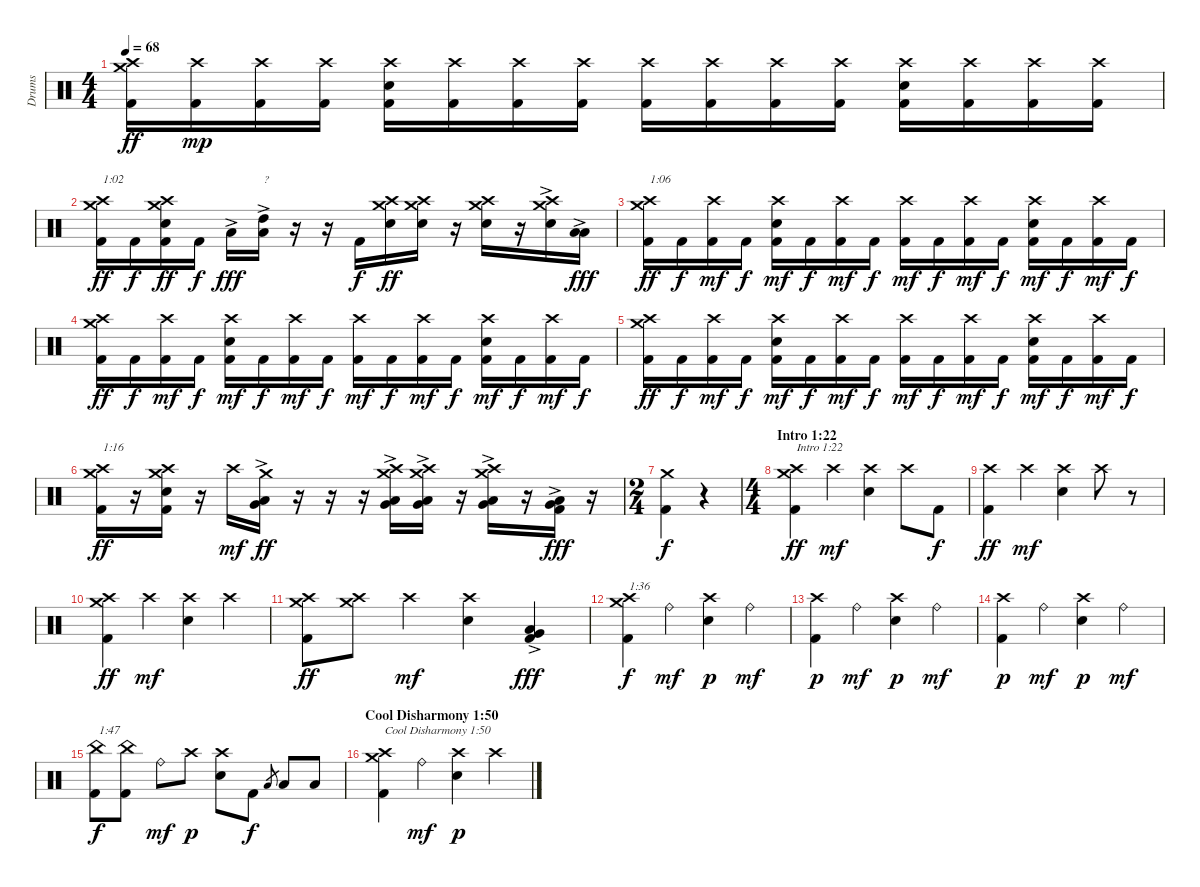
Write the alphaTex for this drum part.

\track ("Drums" "Drums") {instrument percussion}
\staff {score}
\articulation defaults
\ts (4 4)
\tempo 68
\clef neutral
\ks c
("Kick (hit) 2" "Crash high (hit)" "Crash medium (hit)").16{dy ff} ("Kick (hit) 2" "Crash high (hit)").16{dy mp} ("Kick (hit) 2" "Crash high (hit)").16 ("Kick (hit) 2" "Crash high (hit)").16 ("Kick (hit) 2" "Electric Snare (hit)" "Crash high (hit)").16 ("Kick (hit) 2" "Crash high (hit)").16 ("Kick (hit) 2" "Crash high (hit)").16 ("Kick (hit) 2" "Crash high (hit)").16 ("Kick (hit) 2" "Crash high (hit)").16 ("Kick (hit) 2" "Crash high (hit)").16 ("Kick (hit) 2" "Crash high (hit)").16 ("Kick (hit) 2" "Crash high (hit)").16 ("Kick (hit) 2" "Electric Snare (hit)" "Crash high (hit)").16 ("Kick (hit) 2" "Crash high (hit)").16 ("Kick (hit) 2" "Crash high (hit)").16 ("Kick (hit) 2" "Crash high (hit)").16 |
("Kick (hit) 2" "Crash high (hit)" "Crash medium (hit)").16{txt "1:02" dy ff} "Kick (hit) 2".16{dy f} ("Kick (hit) 2" "Electric Snare (hit)" "Crash high (hit)" "Crash medium (hit)").16{dy ff} "Kick (hit) 2".16{dy f} "Low Tom (hit)"{ac}.16{dy fff} ("Low Tom (hit)"{ac} "High Tom (hit)"{ac}).16{txt "?"} r.16 r.16 "Kick (hit) 2".16{dy f} ("Electric Snare (hit)" "Crash high (hit)" "Crash medium (hit)").16{dy ff} ("Electric Snare (hit)" "Crash high (hit)" "Crash medium (hit)").16 r.16 ("Electric Snare (hit)" "Crash high (hit)" "Crash medium (hit)").16 r.16 ("Electric Snare (hit)"{ac} "Crash high (hit)" "Crash medium (hit)").16 ("Low Tom (hit)"{ac} "Low Tom (hit)"{ac}).16{dy fff} |
("Kick (hit) 2" "Crash high (hit)" "Crash medium (hit)").16{txt "1:06" dy ff} "Kick (hit) 2".16{dy f} ("Kick (hit) 2" "Crash high (hit)").16{dy mf} "Kick (hit) 2".16{dy f} ("Kick (hit) 2" "Electric Snare (hit)" "Crash high (hit)").16{dy mf} "Kick (hit) 2".16{dy f} ("Kick (hit) 2" "Crash high (hit)").16{dy mf} "Kick (hit) 2".16{dy f} ("Kick (hit) 2" "Crash high (hit)").16{dy mf} "Kick (hit) 2".16{dy f} ("Kick (hit) 2" "Crash high (hit)").16{dy mf} "Kick (hit) 2".16{dy f} ("Kick (hit) 2" "Electric Snare (hit)" "Crash high (hit)").16{dy mf} "Kick (hit) 2".16{dy f} ("Kick (hit) 2" "Crash high (hit)").16{dy mf} "Kick (hit) 2".16{dy f} |
("Kick (hit) 2" "Crash high (hit)" "Crash medium (hit)").16{dy ff} "Kick (hit) 2".16{dy f} ("Kick (hit) 2" "Crash high (hit)").16{dy mf} "Kick (hit) 2".16{dy f} ("Kick (hit) 2" "Electric Snare (hit)" "Crash high (hit)").16{dy mf} "Kick (hit) 2".16{dy f} ("Kick (hit) 2" "Crash high (hit)").16{dy mf} "Kick (hit) 2".16{dy f} ("Kick (hit) 2" "Crash high (hit)").16{dy mf} "Kick (hit) 2".16{dy f} ("Kick (hit) 2" "Crash high (hit)").16{dy mf} "Kick (hit) 2".16{dy f} ("Kick (hit) 2" "Electric Snare (hit)" "Crash high (hit)").16{dy mf} "Kick (hit) 2".16{dy f} ("Kick (hit) 2" "Crash high (hit)").16{dy mf} "Kick (hit) 2".16{dy f} |
("Kick (hit) 2" "Crash high (hit)" "Crash medium (hit)").16{dy ff} "Kick (hit) 2".16{dy f} ("Kick (hit) 2" "Crash high (hit)").16{dy mf} "Kick (hit) 2".16{dy f} ("Kick (hit) 2" "Electric Snare (hit)" "Crash high (hit)").16{dy mf} "Kick (hit) 2".16{dy f} ("Kick (hit) 2" "Crash high (hit)").16{dy mf} "Kick (hit) 2".16{dy f} ("Kick (hit) 2" "Crash high (hit)").16{dy mf} "Kick (hit) 2".16{dy f} ("Kick (hit) 2" "Crash high (hit)").16{dy mf} "Kick (hit) 2".16{dy f} ("Kick (hit) 2" "Electric Snare (hit)" "Crash high (hit)").16{dy mf} "Kick (hit) 2".16{dy f} ("Kick (hit) 2" "Crash high (hit)").16{dy mf} "Kick (hit) 2".16{dy f} |
("Kick (hit) 2" "Crash high (hit)" "Crash medium (hit)").16{txt "1:16" dy ff} r.16 ("Kick (hit) 2" "Electric Snare (hit)" "Crash high (hit)" "Crash medium (hit)").16 r.16 "Crash high (hit)".16{dy mf} ("Low Tom (hit)"{ac} "Very Low Tom (hit)"{ac} "Crash medium (hit)").16{dy ff} r.16 r.16 r.16 ("Low Tom (hit)"{ac} "Very Low Tom (hit)"{ac} "Crash high (hit)" "Crash medium (hit)").16 ("Low Tom (hit)"{ac} "Very Low Tom (hit)"{ac} "Crash high (hit)" "Crash medium (hit)").16 r.16 ("Low Tom (hit)"{ac} "Very Low Tom (hit)"{ac} "Crash high (hit)" "Crash medium (hit)").16 r.16 ("Kick (hit) 2"{ac} "Low Tom (hit)"{ac} "Very Low Tom (hit)"{ac}).16{dy fff} r.16 |
\ts (2 4)
("Kick (hit) 2" "Crash medium (hit)").4{dy f} r.4 |
\ts (4 4)
\section ("" "Intro 1:22")
("Kick (hit) 2" "Crash high (hit)" "Crash medium (hit)").4{txt "Intro 1:22" dy ff} "Crash high (hit)".4{dy mf} ("Electric Snare (hit)" "Crash high (hit)").4 "Crash high (hit)".8 "Kick (hit) 2".8{dy f} |
("Kick (hit) 2" "Crash high (hit)").4{dy ff} "Crash high (hit)".4{dy mf} ("Electric Snare (hit)" "Crash high (hit)").4 "Crash high (hit)".8 r.8 |
("Kick (hit) 2" "Crash high (hit)" "Crash medium (hit)").4{dy ff} "Crash high (hit)".4{dy mf} ("Electric Snare (hit)" "Crash high (hit)").4 "Crash high (hit)".4 |
("Kick (hit) 2" "Crash high (hit)" "Crash medium (hit)").8{dy ff} ("Crash high (hit)" "Crash medium (hit)").8 "Crash high (hit)".4{dy mf} ("Electric Snare (hit)" "Crash high (hit)").4 ("Kick (hit) 2" "Very Low Tom (hit)"{ac} "Low Tom (hit)"{ac}).4{dy fff} |
("Kick (hit) 2" "Crash high (hit)" "Crash medium (hit)").4{txt "1:36" dy f} "Ride (bell)".4{dy mf} ("Electric Snare (hit)" "Crash high (hit)").4{dy p} "Ride (bell)".4{dy mf} |
("Kick (hit) 2" "Crash high (hit)").4{dy p} "Ride (bell)".4{dy mf} ("Electric Snare (hit)" "Crash high (hit)").4{dy p} "Ride (bell)".4{dy mf} |
("Kick (hit) 2" "Crash high (hit)").4{dy p} "Ride (bell)".4{dy mf} ("Electric Snare (hit)" "Crash high (hit)").4{dy p} "Ride (bell)".4{dy mf} |
("Kick (hit) 2" "China (hit)").8{txt "1:47" dy f} ("Kick (hit) 2" "China (hit)").8 "Ride (bell)".8{dy mf} "Crash high (hit)".8{dy p} ("Electric Snare (hit)" "Crash high (hit)").8 "Kick (hit) 2".8{dy f} "Low Tom (hit)".8{gr} "Low Tom (hit)".8 "Low Tom (hit)".8 |
\section ("" "Cool Disharmony 1:50")
("Kick (hit) 2" "Crash high (hit)" "Crash medium (hit)").4{txt "Cool Disharmony 1:50"} "Ride (bell)".4{dy mf} ("Electric Snare (hit)" "Crash high (hit)").4{dy p} "Crash high (hit)".4
